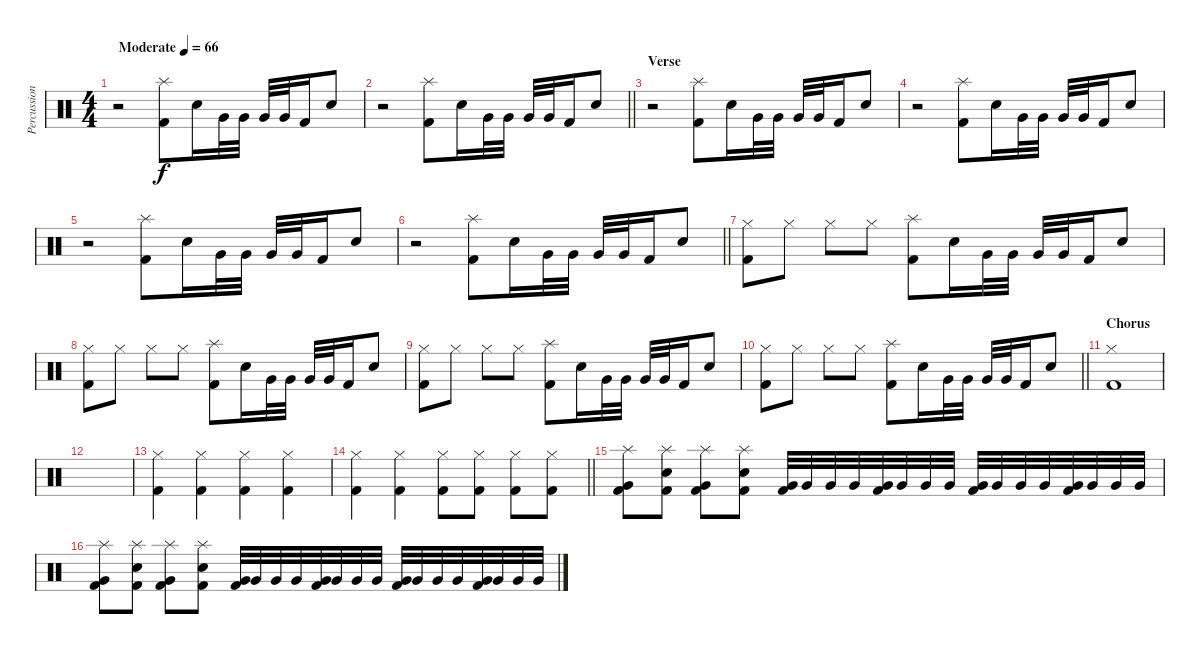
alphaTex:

\track ("Percussion" "Percussion") {instrument percussion}
\staff {score}
\articulation defaults
\ts (4 4)
\tempo (66 "Moderate")
\clef neutral
\ks c
r.2{dy f} ("Splash (hit)" "Kick (hit) 2").8 "Snare (hit) 2".16 "Very Low Tom (hit)".32 "Very Low Tom (hit)".32 "Very Low Tom (hit)".32 "Very Low Tom (hit)".32 "Kick (hit) 2".16 "Snare (hit) 2".8 |
\barLineRight lightlight
r.2 ("Splash (hit)" "Kick (hit) 2").8 "Snare (hit) 2".16 "Very Low Tom (hit)".32 "Very Low Tom (hit)".32 "Very Low Tom (hit)".32 "Very Low Tom (hit)".32 "Kick (hit) 2".16 "Snare (hit) 2".8 |
\section ("" "Verse")
r.2 ("Splash (hit)" "Kick (hit) 2").8 "Snare (hit) 2".16 "Very Low Tom (hit)".32 "Very Low Tom (hit)".32 "Very Low Tom (hit)".32 "Very Low Tom (hit)".32 "Kick (hit) 2".16 "Snare (hit) 2".8 |
r.2 ("Splash (hit)" "Kick (hit) 2").8 "Snare (hit) 2".16 "Very Low Tom (hit)".32 "Very Low Tom (hit)".32 "Very Low Tom (hit)".32 "Very Low Tom (hit)".32 "Kick (hit) 2".16 "Snare (hit) 2".8 |
r.2 ("Splash (hit)" "Kick (hit) 2").8 "Snare (hit) 2".16 "Very Low Tom (hit)".32 "Very Low Tom (hit)".32 "Very Low Tom (hit)".32 "Very Low Tom (hit)".32 "Kick (hit) 2".16 "Snare (hit) 2".8 |
\barLineRight lightlight
r.2 ("Splash (hit)" "Kick (hit) 2").8 "Snare (hit) 2".16 "Very Low Tom (hit)".32 "Very Low Tom (hit)".32 "Very Low Tom (hit)".32 "Very Low Tom (hit)".32 "Kick (hit) 2".16 "Snare (hit) 2".8 |
("Hi-Hat (closed)" "Kick (hit) 2").8 "Hi-Hat (closed)".8 "Hi-Hat (closed)".8 "Hi-Hat (closed)".8 ("Splash (hit)" "Kick (hit) 2").8 "Snare (hit) 2".16 "Very Low Tom (hit)".32 "Very Low Tom (hit)".32 "Very Low Tom (hit)".32 "Very Low Tom (hit)".32 "Kick (hit) 2".16 "Snare (hit) 2".8 |
("Hi-Hat (closed)" "Kick (hit) 2").8 "Hi-Hat (closed)".8 "Hi-Hat (closed)".8 "Hi-Hat (closed)".8 ("Splash (hit)" "Kick (hit) 2").8 "Snare (hit) 2".16 "Very Low Tom (hit)".32 "Very Low Tom (hit)".32 "Very Low Tom (hit)".32 "Very Low Tom (hit)".32 "Kick (hit) 2".16 "Snare (hit) 2".8 |
("Hi-Hat (closed)" "Kick (hit) 2").8 "Hi-Hat (closed)".8 "Hi-Hat (closed)".8 "Hi-Hat (closed)".8 ("Splash (hit)" "Kick (hit) 2").8 "Snare (hit) 2".16 "Very Low Tom (hit)".32 "Very Low Tom (hit)".32 "Very Low Tom (hit)".32 "Very Low Tom (hit)".32 "Kick (hit) 2".16 "Snare (hit) 2".8 |
\barLineRight lightlight
("Hi-Hat (closed)" "Kick (hit) 2").8 "Hi-Hat (closed)".8 "Hi-Hat (closed)".8 "Hi-Hat (closed)".8 ("Splash (hit)" "Kick (hit) 2").8 "Snare (hit) 2".16 "Very Low Tom (hit)".32 "Very Low Tom (hit)".32 "Very Low Tom (hit)".32 "Very Low Tom (hit)".32 "Kick (hit) 2".16 "Snare (hit) 2".8 |
\section ("" "Chorus")
("Hi-Hat (closed)" "Kick (hit) 2").1 |
|
("Hi-Hat (closed)" "Kick (hit) 2").4 ("Hi-Hat (closed)" "Kick (hit) 2").4 ("Hi-Hat (closed)" "Kick (hit) 2").4 ("Hi-Hat (closed)" "Kick (hit) 2").4 |
\barLineRight lightlight
("Hi-Hat (closed)" "Kick (hit) 2").4 ("Hi-Hat (closed)" "Kick (hit) 2").4 ("Hi-Hat (closed)" "Kick (hit) 2").8 ("Hi-Hat (closed)" "Kick (hit) 2").8 ("Hi-Hat (closed)" "Kick (hit) 2").8 ("Hi-Hat (closed)" "Kick (hit) 2").8 |
("Splash (hit)" "Very Low Tom (hit)" "Kick (hit) 2").8 ("Splash (hit)" "Snare (hit) 2" "Kick (hit) 2").8 ("Splash (hit)" "Very Low Tom (hit)" "Kick (hit) 2").8 ("Splash (hit)" "Snare (hit) 2" "Kick (hit) 2").8 ("Very Low Tom (hit)" "Kick (hit) 2").32 "Very Low Tom (hit)".32 "Very Low Tom (hit)".32 "Very Low Tom (hit)".32 ("Very Low Tom (hit)" "Kick (hit) 2").32 "Very Low Tom (hit)".32 "Very Low Tom (hit)".32 "Very Low Tom (hit)".32 ("Very Low Tom (hit)" "Kick (hit) 2").32 "Very Low Tom (hit)".32 "Very Low Tom (hit)".32 "Very Low Tom (hit)".32 ("Very Low Tom (hit)" "Kick (hit) 2").32 "Very Low Tom (hit)".32 "Very Low Tom (hit)".32 "Very Low Tom (hit)".32 |
("Splash (hit)" "Very Low Tom (hit)" "Kick (hit) 2").8 ("Splash (hit)" "Snare (hit) 2" "Kick (hit) 2").8 ("Splash (hit)" "Very Low Tom (hit)" "Kick (hit) 2").8 ("Splash (hit)" "Snare (hit) 2" "Kick (hit) 2").8 ("Very Low Tom (hit)" "Kick (hit) 2").32 "Very Low Tom (hit)".32 "Very Low Tom (hit)".32 "Very Low Tom (hit)".32 ("Very Low Tom (hit)" "Kick (hit) 2").32 "Very Low Tom (hit)".32 "Very Low Tom (hit)".32 "Very Low Tom (hit)".32 ("Very Low Tom (hit)" "Kick (hit) 2").32 "Very Low Tom (hit)".32 "Very Low Tom (hit)".32 "Very Low Tom (hit)".32 ("Very Low Tom (hit)" "Kick (hit) 2").32 "Very Low Tom (hit)".32 "Very Low Tom (hit)".32 "Very Low Tom (hit)".32
